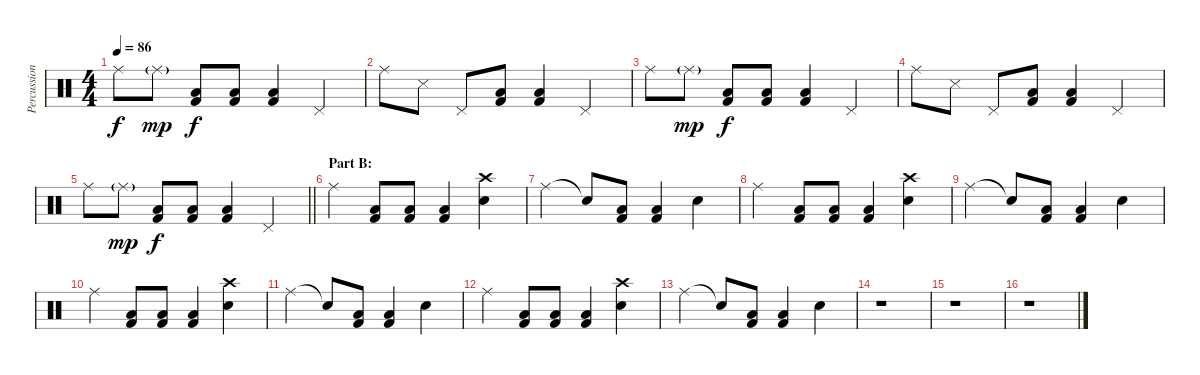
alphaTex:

\track ("Percussion" "Percussion") {instrument percussion}
\staff {score}
\articulation defaults
\ts (4 4)
\tempo 86
\clef neutral
\ks c "Ride (middle)".8{dy f} "Ride (middle)"{g}.8{dy mp}
("Low Tom (hit)" "Kick (hit) 2").8{dy f} ("Low Tom (hit)" "Kick (hit) 2").8 ("Low Tom (hit)" "Kick (hit) 2").4 "Pedal Hi-Hat (hit)".4 |
"Ride (middle)".8 "Snare (side stick) 3".8 "Pedal Hi-Hat (hit)".8 ("Low Tom (hit)" "Kick (hit) 2").8 ("Low Tom (hit)" "Kick (hit) 2").4 "Pedal Hi-Hat (hit)".4 |
"Ride (middle)".8 "Ride (middle)"{g}.8{dy mp} ("Low Tom (hit)" "Kick (hit) 2").8{dy f} ("Low Tom (hit)" "Kick (hit) 2").8 ("Low Tom (hit)" "Kick (hit) 2").4 "Pedal Hi-Hat (hit)".4 |
"Ride (middle)".8 "Snare (side stick) 3".8 "Pedal Hi-Hat (hit)".8 ("Low Tom (hit)" "Kick (hit) 2").8 ("Low Tom (hit)" "Kick (hit) 2").4 "Pedal Hi-Hat (hit)".4 |
\barLineRight lightlight "Ride (middle)".8 "Ride (middle)"{g}.8{dy mp}
("Low Tom (hit)" "Kick (hit) 2").8{dy f} ("Low Tom (hit)" "Kick (hit) 2").8 ("Low Tom (hit)" "Kick (hit) 2").4 "Pedal Hi-Hat (hit)".4 |
\section ("" "Part B:")
"Ride (middle)".4 ("Low Tom (hit)" "Kick (hit) 2").8 ("Low Tom (hit)" "Kick (hit) 2").8 ("Low Tom (hit)" "Kick (hit) 2").4 ("Crash high (hit)" "Snare (hit) 2").4 |
"Ride (middle)".4 "Snare (hit)"{t}.8 ("Low Tom (hit)" "Kick (hit) 2").8 ("Low Tom (hit)" "Kick (hit) 2").4 "Snare (hit) 2".4 |
"Ride (middle)".4 ("Low Tom (hit)" "Kick (hit) 2").8 ("Low Tom (hit)" "Kick (hit) 2").8 ("Low Tom (hit)" "Kick (hit) 2").4 ("Crash high (hit)" "Snare (hit) 2").4 |
"Ride (middle)".4 "Snare (hit)"{t}.8 ("Low Tom (hit)" "Kick (hit) 2").8 ("Low Tom (hit)" "Kick (hit) 2").4 "Snare (hit) 2".4 |
"Ride (middle)".4 ("Low Tom (hit)" "Kick (hit) 2").8 ("Low Tom (hit)" "Kick (hit) 2").8 ("Low Tom (hit)" "Kick (hit) 2").4 ("Crash high (hit)" "Snare (hit) 2").4 |
"Ride (middle)".4 "Snare (hit)"{t}.8 ("Low Tom (hit)" "Kick (hit) 2").8 ("Low Tom (hit)" "Kick (hit) 2").4 "Snare (hit) 2".4 |
"Ride (middle)".4 ("Low Tom (hit)" "Kick (hit) 2").8 ("Low Tom (hit)" "Kick (hit) 2").8 ("Low Tom (hit)" "Kick (hit) 2").4 ("Crash high (hit)" "Snare (hit) 2").4 |
"Ride (middle)".4 "Snare (hit)"{t}.8 ("Low Tom (hit)" "Kick (hit) 2").8 ("Low Tom (hit)" "Kick (hit) 2").4 "Snare (hit) 2".4 |
r.1 |
r.1 |
r.1
